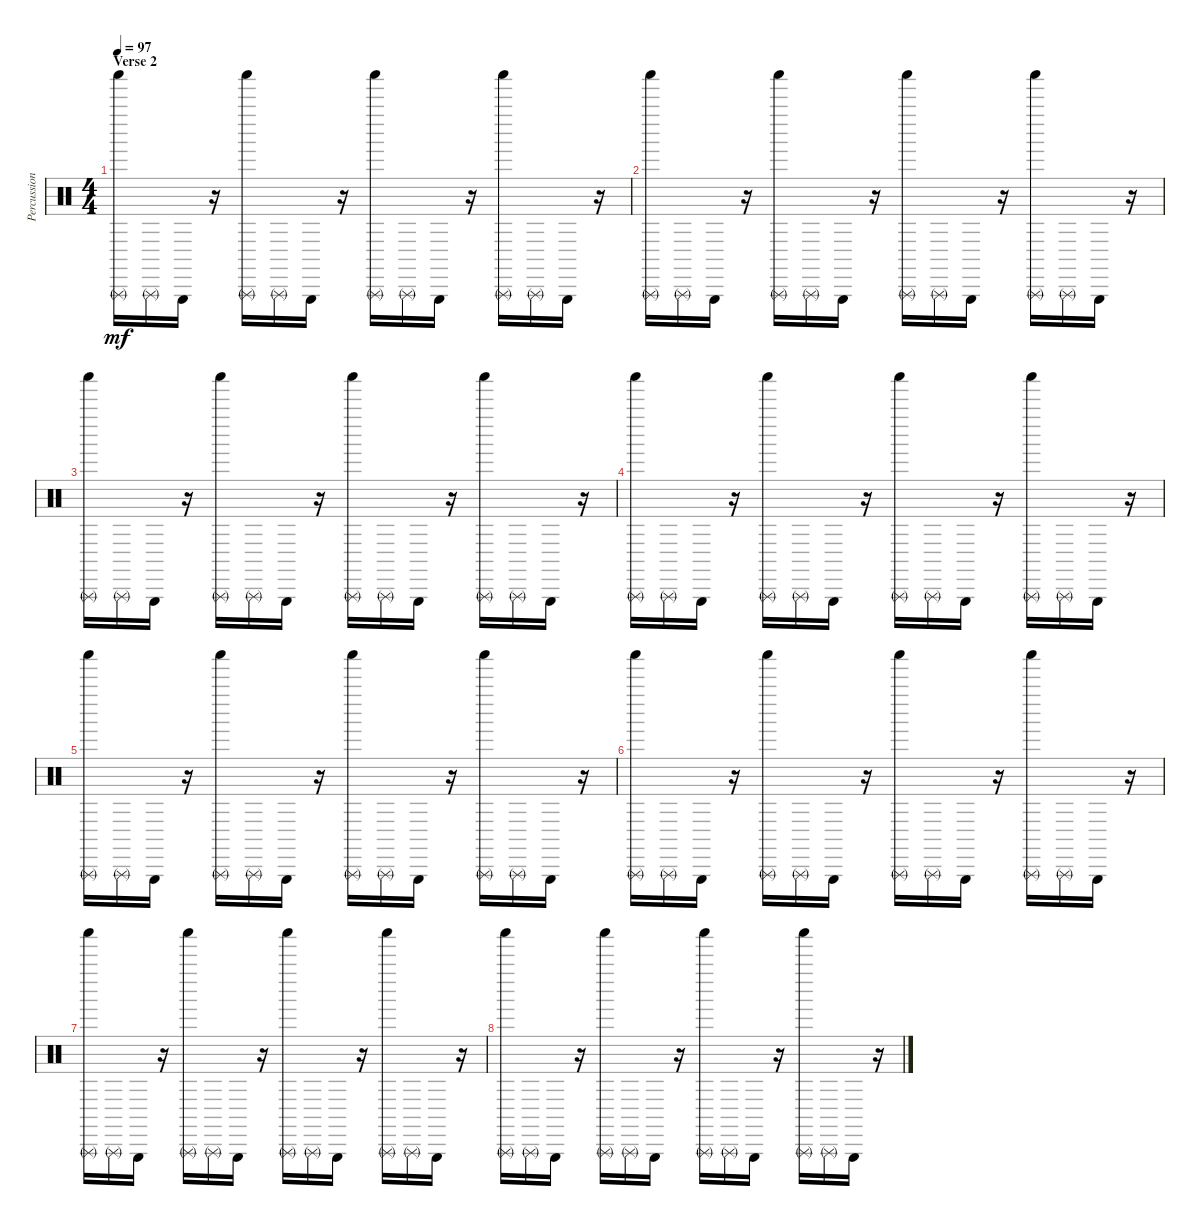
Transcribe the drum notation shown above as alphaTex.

\track ("Percussions" "Percussion") {instrument percussion}
\staff {score}
\articulation defaults
\ts (4 4)
\section ("" "Verse 2")
\tempo 97
\clef neutral
\ks c
("Triangle (rnute)" "Shaker (hit)").16{dy mf} "Triangle (rnute)".16 "Triangle (hit)".16 r.16 ("Triangle (rnute)" "Shaker (hit)").16 "Triangle (rnute)".16 "Triangle (hit)".16 r.16 ("Triangle (rnute)" "Shaker (hit)").16 "Triangle (rnute)".16 "Triangle (hit)".16 r.16 ("Triangle (rnute)" "Shaker (hit)").16 "Triangle (rnute)".16 "Triangle (hit)".16 r.16 |
("Triangle (rnute)" "Shaker (hit)").16 "Triangle (rnute)".16 "Triangle (hit)".16 r.16 ("Triangle (rnute)" "Shaker (hit)").16 "Triangle (rnute)".16 "Triangle (hit)".16 r.16 ("Triangle (rnute)" "Shaker (hit)").16 "Triangle (rnute)".16 "Triangle (hit)".16 r.16 ("Triangle (rnute)" "Shaker (hit)").16 "Triangle (rnute)".16 "Triangle (hit)".16 r.16 |
("Triangle (rnute)" "Shaker (hit)").16 "Triangle (rnute)".16 "Triangle (hit)".16 r.16 ("Triangle (rnute)" "Shaker (hit)").16 "Triangle (rnute)".16 "Triangle (hit)".16 r.16 ("Triangle (rnute)" "Shaker (hit)").16 "Triangle (rnute)".16 "Triangle (hit)".16 r.16 ("Triangle (rnute)" "Shaker (hit)").16 "Triangle (rnute)".16 "Triangle (hit)".16 r.16 |
("Triangle (rnute)" "Shaker (hit)").16 "Triangle (rnute)".16 "Triangle (hit)".16 r.16 ("Triangle (rnute)" "Shaker (hit)").16 "Triangle (rnute)".16 "Triangle (hit)".16 r.16 ("Triangle (rnute)" "Shaker (hit)").16 "Triangle (rnute)".16 "Triangle (hit)".16 r.16 ("Triangle (rnute)" "Shaker (hit)").16 "Triangle (rnute)".16 "Triangle (hit)".16 r.16 |
("Triangle (rnute)" "Shaker (hit)").16 "Triangle (rnute)".16 "Triangle (hit)".16 r.16 ("Triangle (rnute)" "Shaker (hit)").16 "Triangle (rnute)".16 "Triangle (hit)".16 r.16 ("Triangle (rnute)" "Shaker (hit)").16 "Triangle (rnute)".16 "Triangle (hit)".16 r.16 ("Triangle (rnute)" "Shaker (hit)").16 "Triangle (rnute)".16 "Triangle (hit)".16 r.16 |
("Triangle (rnute)" "Shaker (hit)").16 "Triangle (rnute)".16 "Triangle (hit)".16 r.16 ("Triangle (rnute)" "Shaker (hit)").16 "Triangle (rnute)".16 "Triangle (hit)".16 r.16 ("Triangle (rnute)" "Shaker (hit)").16 "Triangle (rnute)".16 "Triangle (hit)".16 r.16 ("Triangle (rnute)" "Shaker (hit)").16 "Triangle (rnute)".16 "Triangle (hit)".16 r.16 |
("Triangle (rnute)" "Shaker (hit)").16 "Triangle (rnute)".16 "Triangle (hit)".16 r.16 ("Triangle (rnute)" "Shaker (hit)").16 "Triangle (rnute)".16 "Triangle (hit)".16 r.16 ("Triangle (rnute)" "Shaker (hit)").16 "Triangle (rnute)".16 "Triangle (hit)".16 r.16 ("Triangle (rnute)" "Shaker (hit)").16 "Triangle (rnute)".16 "Triangle (hit)".16 r.16 |
("Triangle (rnute)" "Shaker (hit)").16 "Triangle (rnute)".16 "Triangle (hit)".16 r.16 ("Triangle (rnute)" "Shaker (hit)").16 "Triangle (rnute)".16 "Triangle (hit)".16 r.16 ("Triangle (rnute)" "Shaker (hit)").16 "Triangle (rnute)".16 "Triangle (hit)".16 r.16 ("Triangle (rnute)" "Shaker (hit)").16 "Triangle (rnute)".16 "Triangle (hit)".16 r.16
